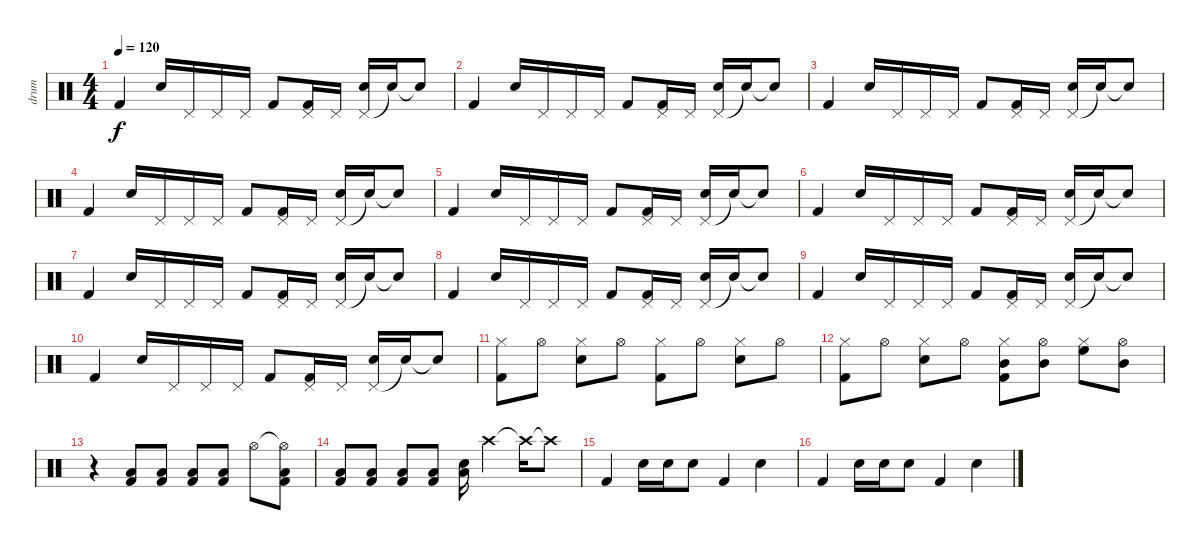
\track ("drum" "drum") {instrument percussion}
\staff {score}
\articulation defaults
\ts (4 4)
\tempo 120
\clef neutral
\ks c "Kick (hit) 2".4{dy f} "Electric Snare (hit)".16 "Pedal Hi-Hat (hit)".16 "Pedal Hi-Hat (hit)".16 "Pedal Hi-Hat (hit)".16 "Kick (hit) 2".8
("Pedal Hi-Hat (hit)" "Kick (hit) 2").16 "Pedal Hi-Hat (hit)".16 ("Pedal Hi-Hat (hit)" "Electric Snare (hit)").16 "Snare (hit)"{t}.16 "Snare (hit)"{t}.8 |
"Kick (hit) 2".4 "Electric Snare (hit)".16 "Pedal Hi-Hat (hit)".16 "Pedal Hi-Hat (hit)".16 "Pedal Hi-Hat (hit)".16 "Kick (hit) 2".8 ("Pedal Hi-Hat (hit)" "Kick (hit) 2").16 "Pedal Hi-Hat (hit)".16 ("Pedal Hi-Hat (hit)" "Electric Snare (hit)").16 "Snare (hit)"{t}.16 "Snare (hit)"{t}.8 |
"Kick (hit) 2".4 "Electric Snare (hit)".16 "Pedal Hi-Hat (hit)".16 "Pedal Hi-Hat (hit)".16 "Pedal Hi-Hat (hit)".16 "Kick (hit) 2".8 ("Pedal Hi-Hat (hit)" "Kick (hit) 2").16 "Pedal Hi-Hat (hit)".16 ("Pedal Hi-Hat (hit)" "Electric Snare (hit)").16 "Snare (hit)"{t}.16 "Snare (hit)"{t}.8 |
"Kick (hit) 2".4 "Electric Snare (hit)".16 "Pedal Hi-Hat (hit)".16 "Pedal Hi-Hat (hit)".16 "Pedal Hi-Hat (hit)".16 "Kick (hit) 2".8 ("Pedal Hi-Hat (hit)" "Kick (hit) 2").16 "Pedal Hi-Hat (hit)".16 ("Pedal Hi-Hat (hit)" "Electric Snare (hit)").16 "Snare (hit)"{t}.16 "Snare (hit)"{t}.8 |
"Kick (hit) 2".4 "Electric Snare (hit)".16 "Pedal Hi-Hat (hit)".16 "Pedal Hi-Hat (hit)".16 "Pedal Hi-Hat (hit)".16 "Kick (hit) 2".8 ("Pedal Hi-Hat (hit)" "Kick (hit) 2").16 "Pedal Hi-Hat (hit)".16 ("Pedal Hi-Hat (hit)" "Electric Snare (hit)").16 "Snare (hit)"{t}.16 "Snare (hit)"{t}.8 |
"Kick (hit) 2".4 "Electric Snare (hit)".16 "Pedal Hi-Hat (hit)".16 "Pedal Hi-Hat (hit)".16 "Pedal Hi-Hat (hit)".16 "Kick (hit) 2".8 ("Pedal Hi-Hat (hit)" "Kick (hit) 2").16 "Pedal Hi-Hat (hit)".16 ("Pedal Hi-Hat (hit)" "Electric Snare (hit)").16 "Snare (hit)"{t}.16 "Snare (hit)"{t}.8 |
"Kick (hit) 2".4 "Electric Snare (hit)".16 "Pedal Hi-Hat (hit)".16 "Pedal Hi-Hat (hit)".16 "Pedal Hi-Hat (hit)".16 "Kick (hit) 2".8 ("Pedal Hi-Hat (hit)" "Kick (hit) 2").16 "Pedal Hi-Hat (hit)".16 ("Pedal Hi-Hat (hit)" "Electric Snare (hit)").16 "Snare (hit)"{t}.16 "Snare (hit)"{t}.8 |
"Kick (hit) 2".4 "Electric Snare (hit)".16 "Pedal Hi-Hat (hit)".16 "Pedal Hi-Hat (hit)".16 "Pedal Hi-Hat (hit)".16 "Kick (hit) 2".8 ("Pedal Hi-Hat (hit)" "Kick (hit) 2").16 "Pedal Hi-Hat (hit)".16 ("Pedal Hi-Hat (hit)" "Electric Snare (hit)").16 "Snare (hit)"{t}.16 "Snare (hit)"{t}.8 |
"Kick (hit) 2".4 "Electric Snare (hit)".16 "Pedal Hi-Hat (hit)".16 "Pedal Hi-Hat (hit)".16 "Pedal Hi-Hat (hit)".16 "Kick (hit) 2".8 ("Pedal Hi-Hat (hit)" "Kick (hit) 2").16 "Pedal Hi-Hat (hit)".16 ("Pedal Hi-Hat (hit)" "Electric Snare (hit)").16 "Snare (hit)"{t}.16 "Snare (hit)"{t}.8 |
"Kick (hit) 2".4 "Electric Snare (hit)".16 "Pedal Hi-Hat (hit)".16 "Pedal Hi-Hat (hit)".16 "Pedal Hi-Hat (hit)".16 "Kick (hit) 2".8 ("Pedal Hi-Hat (hit)" "Kick (hit) 2").16 "Pedal Hi-Hat (hit)".16 ("Pedal Hi-Hat (hit)" "Electric Snare (hit)").16 "Snare (hit)"{t}.16 "Snare (hit)"{t}.8 |
("Hi-Hat (closed)" "Kick (hit) 2").8 "Hi-Hat (open)".8 ("Hi-Hat (closed)" "Electric Snare (hit)").8 "Hi-Hat (open)".8 ("Hi-Hat (closed)" "Kick (hit) 2").8 "Hi-Hat (open)".8 ("Hi-Hat (closed)" "Electric Snare (hit)").8 "Hi-Hat (open)".8 |
("Hi-Hat (closed)" "Kick (hit) 2").8 "Hi-Hat (open)".8 ("Hi-Hat (closed)" "Electric Snare (hit)").8 "Hi-Hat (open)".8 ("Hi-Hat (closed)" "Mid Tom (hit)" "Kick (hit) 2").8 ("Hi-Hat (open)" "Mid Tom (hit)").8 ("Hi-Hat (closed)" "High Floor Tom (hit)").8 ("Hi-Hat (open)" "Mid Tom (hit)").8 |
r.4 ("Low Tom (hit)" "Kick (hit) 2").8 ("Low Tom (hit)" "Kick (hit) 2").8 ("Low Tom (hit)" "Kick (hit) 2").8 ("Low Tom (hit)" "Kick (hit) 2").8 "Hi-Hat (open)".8 ("Hi-Hat (open)"{t} "Low Tom (hit)" "Kick (hit) 2").8 |
("Low Tom (hit)" "Kick (hit) 2").8 ("Low Tom (hit)" "Kick (hit) 2").8 ("Low Tom (hit)" "Kick (hit) 2").8 ("Low Tom (hit)" "Kick (hit) 2").8 ("Low Tom (hit)" "Electric Snare (hit)").16 "Crash high (hit)".4 "Crash high (hit)"{t}.16 "Crash high (hit)"{t}.8 |
"Kick (hit) 2".4 "Electric Snare (hit)".16 "Electric Snare (hit)".16 "Electric Snare (hit)".8 "Kick (hit) 2".4 "Electric Snare (hit)".4 |
"Kick (hit) 2".4 "Electric Snare (hit)".16 "Electric Snare (hit)".16 "Electric Snare (hit)".8 "Kick (hit) 2".4 "Electric Snare (hit)".4
